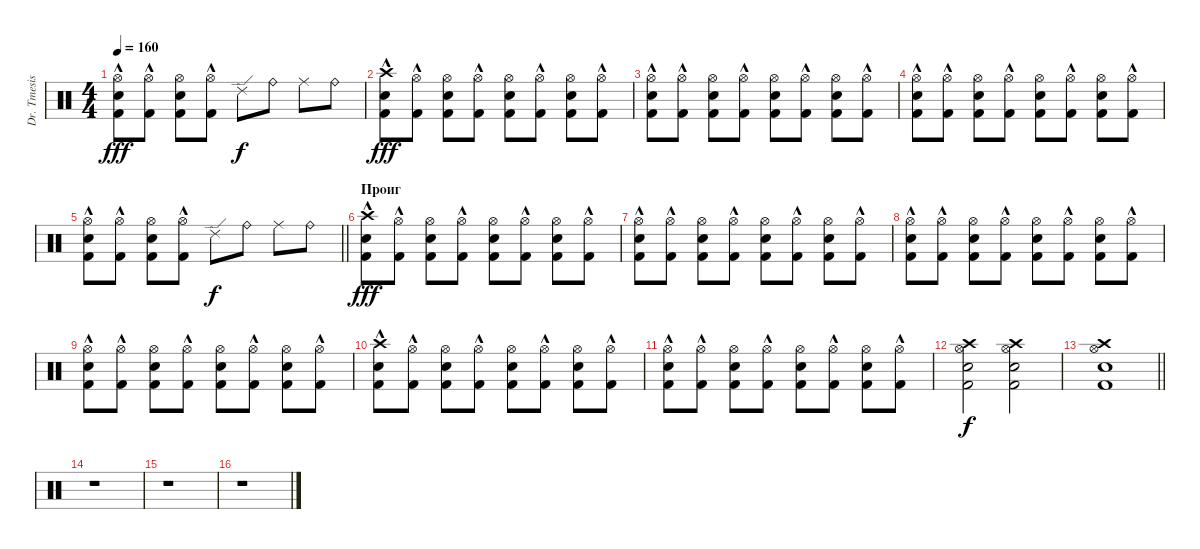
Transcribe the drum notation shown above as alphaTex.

\track ("Dr. Tmesis" "Dr. Tmesis") {instrument percussion}
\staff {score}
\articulation defaults
\ts (4 4)
\tempo 160
\clef neutral
\ks c
("Kick (hit) 2"{hac} "Snare (hit) 2" "Hi-Hat (open)").8{dy fff} ("Kick (hit) 2"{hac} "Hi-Hat (open)").8 ("Snare (hit) 2" "Hi-Hat (open)" "Kick (hit) 2").8 ("Kick (hit) 2"{hac} "Hi-Hat (open)").8 "Ride (edge) 2".8{dy f} "Ride (bell)".8 "Ride (middle)".8 "Ride (bell)".8 |
("Kick (hit) 2"{hac} "Snare (hit) 2" "Crash high (hit)").8{dy fff} ("Kick (hit) 2"{hac} "Hi-Hat (open)").8 ("Snare (hit) 2" "Hi-Hat (open)" "Kick (hit) 2").8 ("Kick (hit) 2"{hac} "Hi-Hat (open)").8 ("Snare (hit) 2" "Hi-Hat (open)" "Kick (hit) 2").8 ("Kick (hit) 2"{hac} "Hi-Hat (open)").8 ("Snare (hit) 2" "Hi-Hat (open)" "Kick (hit) 2").8 ("Kick (hit) 2"{hac} "Hi-Hat (open)").8 |
("Kick (hit) 2"{hac} "Snare (hit) 2" "Hi-Hat (open)").8 ("Kick (hit) 2"{hac} "Hi-Hat (open)").8 ("Snare (hit) 2" "Hi-Hat (open)" "Kick (hit) 2").8 ("Kick (hit) 2"{hac} "Hi-Hat (open)").8 ("Snare (hit) 2" "Hi-Hat (open)" "Kick (hit) 2").8 ("Kick (hit) 2"{hac} "Hi-Hat (open)").8 ("Snare (hit) 2" "Hi-Hat (open)" "Kick (hit) 2").8 ("Kick (hit) 2"{hac} "Hi-Hat (open)").8 |
("Kick (hit) 2"{hac} "Snare (hit) 2" "Hi-Hat (open)").8 ("Kick (hit) 2"{hac} "Hi-Hat (open)").8 ("Snare (hit) 2" "Hi-Hat (open)" "Kick (hit) 2").8 ("Kick (hit) 2"{hac} "Hi-Hat (open)").8 ("Snare (hit) 2" "Hi-Hat (open)" "Kick (hit) 2").8 ("Kick (hit) 2"{hac} "Hi-Hat (open)").8 ("Snare (hit) 2" "Hi-Hat (open)" "Kick (hit) 2").8 ("Kick (hit) 2"{hac} "Hi-Hat (open)").8 |
\barLineRight lightlight
("Kick (hit) 2"{hac} "Snare (hit) 2" "Hi-Hat (open)").8 ("Kick (hit) 2"{hac} "Hi-Hat (open)").8 ("Snare (hit) 2" "Hi-Hat (open)" "Kick (hit) 2").8 ("Kick (hit) 2"{hac} "Hi-Hat (open)").8 "Ride (edge) 2".8{dy f} "Ride (bell)".8 "Ride (middle)".8 "Ride (bell)".8 |
\section ("" "Проиг ")
("Kick (hit) 2"{hac} "Snare (hit) 2" "Crash high (hit)").8{dy fff} ("Kick (hit) 2"{hac} "Hi-Hat (open)").8 ("Snare (hit) 2" "Hi-Hat (open)" "Kick (hit) 2").8 ("Kick (hit) 2"{hac} "Hi-Hat (open)").8 ("Snare (hit) 2" "Hi-Hat (open)" "Kick (hit) 2").8 ("Kick (hit) 2"{hac} "Hi-Hat (open)").8 ("Snare (hit) 2" "Hi-Hat (open)" "Kick (hit) 2").8 ("Kick (hit) 2"{hac} "Hi-Hat (open)").8 |
("Kick (hit) 2"{hac} "Snare (hit) 2" "Hi-Hat (open)").8 ("Kick (hit) 2"{hac} "Hi-Hat (open)").8 ("Snare (hit) 2" "Hi-Hat (open)" "Kick (hit) 2").8 ("Kick (hit) 2"{hac} "Hi-Hat (open)").8 ("Snare (hit) 2" "Hi-Hat (open)" "Kick (hit) 2").8 ("Kick (hit) 2"{hac} "Hi-Hat (open)").8 ("Snare (hit) 2" "Hi-Hat (open)" "Kick (hit) 2").8 ("Kick (hit) 2"{hac} "Hi-Hat (open)").8 |
("Kick (hit) 2"{hac} "Snare (hit) 2" "Hi-Hat (open)").8 ("Kick (hit) 2"{hac} "Hi-Hat (open)").8 ("Snare (hit) 2" "Hi-Hat (open)" "Kick (hit) 2").8 ("Kick (hit) 2"{hac} "Hi-Hat (open)").8 ("Snare (hit) 2" "Hi-Hat (open)" "Kick (hit) 2").8 ("Kick (hit) 2"{hac} "Hi-Hat (open)").8 ("Snare (hit) 2" "Hi-Hat (open)" "Kick (hit) 2").8 ("Kick (hit) 2"{hac} "Hi-Hat (open)").8 |
("Kick (hit) 2"{hac} "Snare (hit) 2" "Hi-Hat (open)").8 ("Kick (hit) 2"{hac} "Hi-Hat (open)").8 ("Snare (hit) 2" "Hi-Hat (open)" "Kick (hit) 2").8 ("Kick (hit) 2"{hac} "Hi-Hat (open)").8 ("Snare (hit) 2" "Hi-Hat (open)" "Kick (hit) 2").8 ("Kick (hit) 2"{hac} "Hi-Hat (open)").8 ("Snare (hit) 2" "Hi-Hat (open)" "Kick (hit) 2").8 ("Kick (hit) 2"{hac} "Hi-Hat (open)").8 |
("Kick (hit) 2"{hac} "Snare (hit) 2" "Crash high (hit)").8 ("Kick (hit) 2"{hac} "Hi-Hat (open)").8 ("Snare (hit) 2" "Hi-Hat (open)" "Kick (hit) 2").8 ("Kick (hit) 2"{hac} "Hi-Hat (open)").8 ("Snare (hit) 2" "Hi-Hat (open)" "Kick (hit) 2").8 ("Kick (hit) 2"{hac} "Hi-Hat (open)").8 ("Snare (hit) 2" "Hi-Hat (open)" "Kick (hit) 2").8 ("Kick (hit) 2"{hac} "Hi-Hat (open)").8 |
("Kick (hit) 2"{hac} "Snare (hit) 2" "Hi-Hat (open)").8 ("Kick (hit) 2"{hac} "Hi-Hat (open)").8 ("Snare (hit) 2" "Hi-Hat (open)" "Kick (hit) 2").8 ("Kick (hit) 2"{hac} "Hi-Hat (open)").8 ("Snare (hit) 2" "Hi-Hat (open)" "Kick (hit) 2").8 ("Kick (hit) 2"{hac} "Hi-Hat (open)").8 ("Snare (hit) 2" "Hi-Hat (open)" "Kick (hit) 2").8 ("Kick (hit) 2"{hac} "Hi-Hat (open)").8 |
("Kick (hit) 2" "Snare (hit) 2" "Crash high (hit)" "Hi-Hat (open)").2{dy f} ("Kick (hit) 2" "Snare (hit) 2" "Crash high (hit)" "Hi-Hat (open)").2 |
\barLineRight lightlight
("Kick (hit) 2" "Snare (hit) 2" "Crash high (hit)" "Hi-Hat (open)").1 |
r.1 |
r.1 |
r.1
